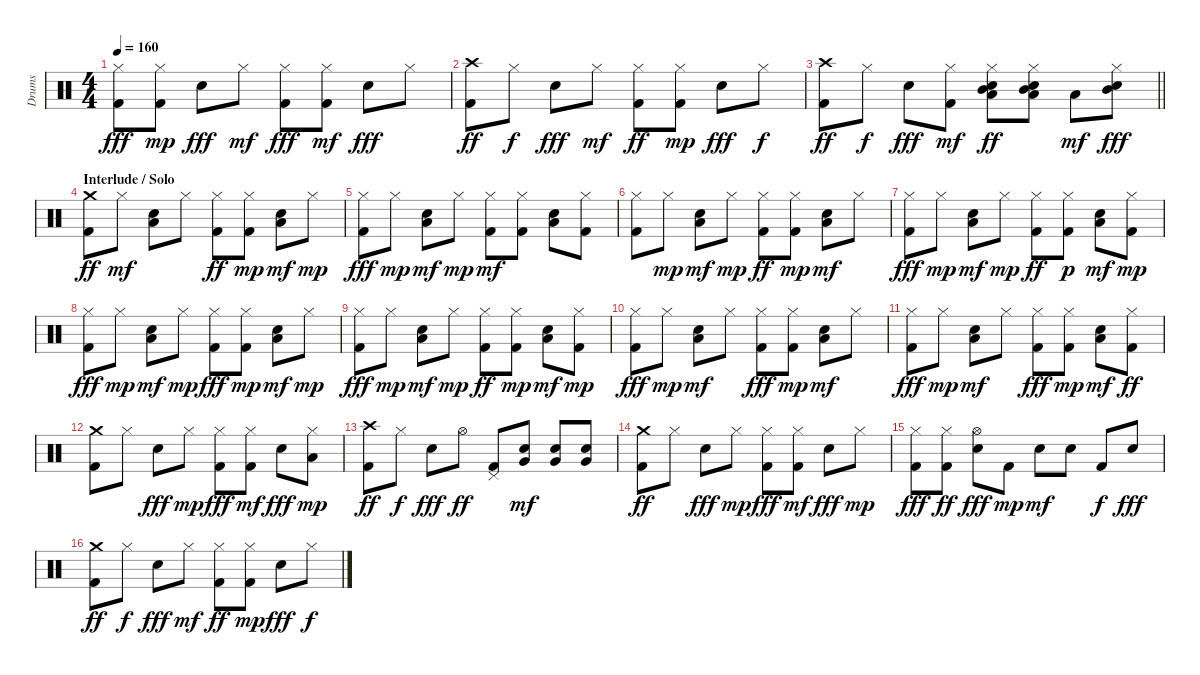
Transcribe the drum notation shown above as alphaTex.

\track ("Drums" "Drums") {instrument percussion}
\staff {score}
\articulation defaults
\ts (4 4)
\tempo 160
\clef neutral
\ks c
("Kick (hit) 2" "Hi-Hat (closed)").8{dy fff} ("Kick (hit) 2" "Hi-Hat (closed)").8{dy mp} "Electric Snare (hit)".8{dy fff} "Hi-Hat (closed)".8{dy mf} ("Kick (hit) 2" "Hi-Hat (closed)").8{dy fff} ("Kick (hit) 2" "Hi-Hat (closed)").8{dy mf} "Electric Snare (hit)".8{dy fff} "Hi-Hat (closed)".8 |
("Kick (hit) 2" "Crash high (hit)").8{dy ff} "Hi-Hat (closed)".8{dy f} "Electric Snare (hit)".8{dy fff} "Hi-Hat (closed)".8{dy mf} ("Kick (hit) 2" "Hi-Hat (closed)").8{dy ff} ("Kick (hit) 2" "Hi-Hat (closed)").8{dy mp} "Electric Snare (hit)".8{dy fff} "Hi-Hat (closed)".8{dy f} |
\barLineRight lightlight
("Kick (hit) 2" "Crash high (hit)").8{dy ff} "Hi-Hat (closed)".8{dy f} "Electric Snare (hit)".8{dy fff} ("Kick (hit) 2" "Hi-Hat (closed)").8{dy mf} ("Electric Snare (hit)" "Hi-Hat (closed)" "Low Tom (hit)" "Mid Tom (hit)").8{dy ff} ("Electric Snare (hit)" "Hi-Hat (closed)" "Low Tom (hit)" "Mid Tom (hit)").8 "Low Tom (hit)".8{dy mf} ("Electric Snare (hit)" "Hi-Hat (closed)" "Mid Tom (hit)").8{dy fff} |
\section ("" "Interlude / Solo")
("Kick (hit) 2" "Crash medium (hit)").8{dy ff} "Hi-Hat (closed)".8{dy mf} ("Electric Snare (hit)" "Low Tom (hit)").8 "Hi-Hat (closed)".8 ("Kick (hit) 2" "Hi-Hat (closed)").8{dy ff} ("Kick (hit) 2" "Hi-Hat (closed)").8{dy mp} ("Electric Snare (hit)" "Low Tom (hit)").8{dy mf} "Hi-Hat (closed)".8{dy mp} |
("Kick (hit) 2" "Hi-Hat (closed)").8{dy fff} "Hi-Hat (closed)".8{dy mp} ("Electric Snare (hit)" "Low Tom (hit)").8{dy mf} "Hi-Hat (closed)".8{dy mp} ("Kick (hit) 2" "Hi-Hat (closed)").8{dy mf} ("Kick (hit) 2" "Hi-Hat (closed)").8 ("Electric Snare (hit)" "Low Tom (hit)").8 ("Kick (hit) 2" "Hi-Hat (closed)").8 |
("Kick (hit) 2" "Hi-Hat (closed)").8 "Hi-Hat (closed)".8{dy mp} ("Electric Snare (hit)" "Low Tom (hit)").8{dy mf} "Hi-Hat (closed)".8{dy mp} ("Kick (hit) 2" "Hi-Hat (closed)").8{dy ff} ("Kick (hit) 2" "Hi-Hat (closed)").8{dy mp} ("Electric Snare (hit)" "Low Tom (hit)").8{dy mf} "Hi-Hat (closed)".8 |
("Kick (hit) 2" "Hi-Hat (closed)").8{dy fff} "Hi-Hat (closed)".8{dy mp} ("Electric Snare (hit)" "Low Tom (hit)").8{dy mf} "Hi-Hat (closed)".8{dy mp} ("Kick (hit) 2" "Hi-Hat (closed)").8{dy ff} ("Kick (hit) 2" "Hi-Hat (closed)").8{dy p} ("Electric Snare (hit)" "Low Tom (hit)").8{dy mf} ("Kick (hit) 2" "Hi-Hat (closed)").8{dy mp} |
("Kick (hit) 2" "Hi-Hat (closed)").8{dy fff} "Hi-Hat (closed)".8{dy mp} ("Electric Snare (hit)" "Low Tom (hit)").8{dy mf} "Hi-Hat (closed)".8{dy mp} ("Kick (hit) 2" "Hi-Hat (closed)").8{dy fff} ("Kick (hit) 2" "Hi-Hat (closed)").8{dy mp} ("Electric Snare (hit)" "Low Tom (hit)").8{dy mf} "Hi-Hat (closed)".8{dy mp} |
("Kick (hit) 2" "Hi-Hat (closed)").8{dy fff} "Hi-Hat (closed)".8{dy mp} ("Electric Snare (hit)" "Low Tom (hit)").8{dy mf} "Hi-Hat (closed)".8{dy mp} ("Kick (hit) 2" "Hi-Hat (closed)").8{dy ff} ("Kick (hit) 2" "Hi-Hat (closed)").8{dy mp} ("Electric Snare (hit)" "Low Tom (hit)").8{dy mf} ("Kick (hit) 2" "Hi-Hat (closed)").8{dy mp} |
("Kick (hit) 2" "Hi-Hat (closed)").8{dy fff} "Hi-Hat (closed)".8{dy mp} ("Electric Snare (hit)" "Low Tom (hit)").8{dy mf} "Hi-Hat (closed)".8 ("Kick (hit) 2" "Hi-Hat (closed)").8{dy fff} ("Kick (hit) 2" "Hi-Hat (closed)").8{dy mp} ("Electric Snare (hit)" "Low Tom (hit)").8{dy mf} "Hi-Hat (closed)".8 |
("Kick (hit) 2" "Hi-Hat (closed)").8{dy fff} "Hi-Hat (closed)".8{dy mp} ("Electric Snare (hit)" "Low Tom (hit)").8{dy mf} "Hi-Hat (closed)".8 ("Kick (hit) 2" "Hi-Hat (closed)").8{dy fff} ("Kick (hit) 2" "Hi-Hat (closed)").8{dy mp} ("Electric Snare (hit)" "Low Tom (hit)").8{dy mf} ("Kick (hit) 2" "Hi-Hat (closed)").8{dy ff} |
("Kick (hit) 2" "Crash medium (hit)").8 "Hi-Hat (closed)".8 "Electric Snare (hit)".8{dy fff} "Hi-Hat (closed)".8{dy mp} ("Kick (hit) 2" "Hi-Hat (closed)").8{dy fff} ("Kick (hit) 2" "Hi-Hat (closed)").8{dy mf} "Electric Snare (hit)".8{dy fff} ("Hi-Hat (closed)" "Low Tom (hit)").8{dy mp} |
("Kick (hit) 2" "Crash high (hit)").8{dy ff} "Hi-Hat (closed)".8{dy f} "Electric Snare (hit)".8{dy fff} "Hi-Hat (open)".8{dy ff} ("Kick (hit) 2" "Pedal Hi-Hat (hit)").8 ("Electric Snare (hit)" "Very Low Tom (hit)").8{dy mf} ("Electric Snare (hit)" "Very Low Tom (hit)").8 ("Electric Snare (hit)" "Very Low Tom (hit)").8 |
("Kick (hit) 2" "Crash medium (hit)").8{dy ff} "Hi-Hat (closed)".8 "Electric Snare (hit)".8{dy fff} "Hi-Hat (closed)".8{dy mp} ("Kick (hit) 2" "Hi-Hat (closed)").8{dy fff} ("Kick (hit) 2" "Hi-Hat (closed)").8{dy mf} "Electric Snare (hit)".8{dy fff} "Hi-Hat (closed)".8{dy mp} |
("Kick (hit) 2" "Hi-Hat (closed)").8{dy fff} ("Kick (hit) 2" "Hi-Hat (closed)").8{dy ff} ("Electric Snare (hit)" "Hi-Hat (open)").8{dy fff} "Kick (hit) 2".8{dy mp} "Electric Snare (hit)".8{dy mf} "Electric Snare (hit)".8 "Kick (hit) 2".8{dy f} "Electric Snare (hit)".8{dy fff} |
("Kick (hit) 2" "Crash medium (hit)").8{dy ff} "Hi-Hat (closed)".8{dy f} "Electric Snare (hit)".8{dy fff} "Hi-Hat (closed)".8{dy mf} ("Kick (hit) 2" "Hi-Hat (closed)").8{dy ff} ("Kick (hit) 2" "Hi-Hat (closed)").8{dy mp} "Electric Snare (hit)".8{dy fff} "Hi-Hat (closed)".8{dy f}
